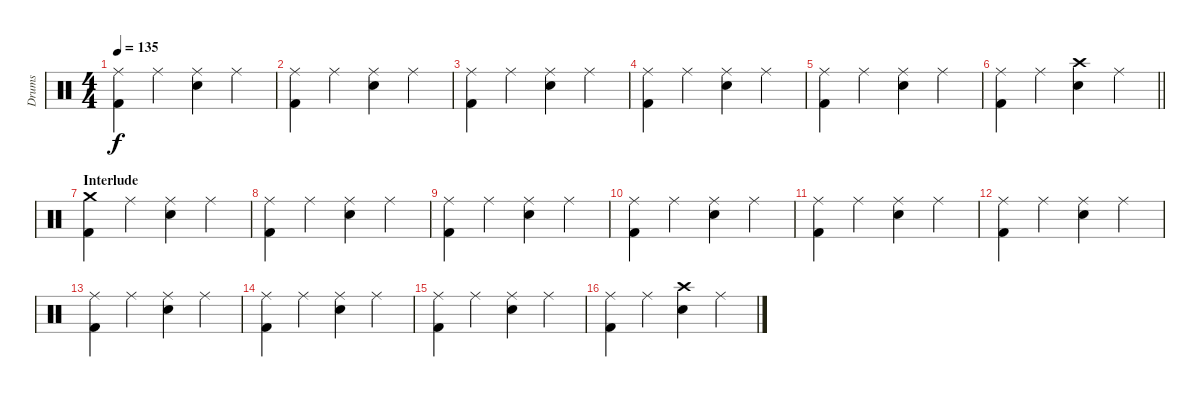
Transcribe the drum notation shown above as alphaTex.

\track ("Drums" "Drums") {instrument percussion}
\staff {score}
\articulation defaults
\ts (4 4)
\tempo 135
\clef neutral
\ks c
("Ride (middle)" "Kick (hit) 2").4{dy f} "Ride (middle)".4 ("Ride (middle)" "Electric Snare (hit)").4 "Ride (middle)".4 |
("Ride (middle)" "Kick (hit) 2").4 "Ride (middle)".4 ("Ride (middle)" "Electric Snare (hit)").4 "Ride (middle)".4 |
("Ride (middle)" "Kick (hit) 2").4 "Ride (middle)".4 ("Ride (middle)" "Electric Snare (hit)").4 "Ride (middle)".4 |
("Ride (middle)" "Kick (hit) 2").4 "Ride (middle)".4 ("Ride (middle)" "Electric Snare (hit)").4 "Ride (middle)".4 |
("Ride (middle)" "Kick (hit) 2").4 "Ride (middle)".4 ("Ride (middle)" "Electric Snare (hit)").4 "Ride (middle)".4 |
\barLineRight lightlight
("Ride (middle)" "Kick (hit) 2").4 "Ride (middle)".4 ("Crash high (hit)" "Electric Snare (hit)").4 "Ride (middle)".4 |
\section ("" "Interlude")
("Crash medium (hit)" "Kick (hit) 2").4 "Ride (middle)".4 ("Ride (middle)" "Electric Snare (hit)").4 "Ride (middle)".4 |
("Ride (middle)" "Kick (hit) 2").4 "Ride (middle)".4 ("Ride (middle)" "Electric Snare (hit)").4 "Ride (middle)".4 |
("Ride (middle)" "Kick (hit) 2").4 "Ride (middle)".4 ("Ride (middle)" "Electric Snare (hit)").4 "Ride (middle)".4 |
("Ride (middle)" "Kick (hit) 2").4 "Ride (middle)".4 ("Ride (middle)" "Electric Snare (hit)").4 "Ride (middle)".4 |
("Ride (middle)" "Kick (hit) 2").4 "Ride (middle)".4 ("Ride (middle)" "Electric Snare (hit)").4 "Ride (middle)".4 |
("Ride (middle)" "Kick (hit) 2").4 "Ride (middle)".4 ("Ride (middle)" "Electric Snare (hit)").4 "Ride (middle)".4 |
("Ride (middle)" "Kick (hit) 2").4 "Ride (middle)".4 ("Ride (middle)" "Electric Snare (hit)").4 "Ride (middle)".4 |
("Ride (middle)" "Kick (hit) 2").4 "Ride (middle)".4 ("Ride (middle)" "Electric Snare (hit)").4 "Ride (middle)".4 |
("Ride (middle)" "Kick (hit) 2").4 "Ride (middle)".4 ("Ride (middle)" "Electric Snare (hit)").4 "Ride (middle)".4 |
("Ride (middle)" "Kick (hit) 2").4 "Ride (middle)".4 ("Crash high (hit)" "Electric Snare (hit)").4 "Ride (middle)".4
